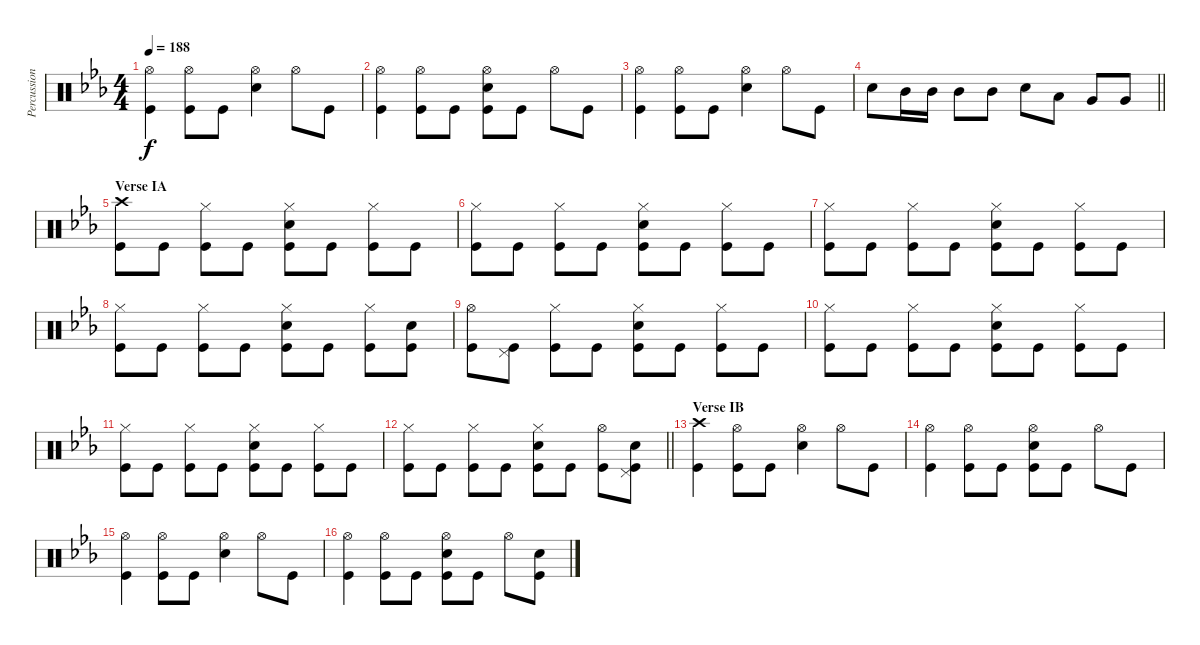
\track ("Percussion" "Percussion") {instrument percussion}
\staff {score}
\articulation defaults
\ts (4 4)
\tempo 188
\clef neutral
\ks eb
("Hi-Hat (open)" "Kick (hit)").4{dy f} ("Hi-Hat (open)" "Kick (hit)").8 "Kick (hit)".8 ("Hi-Hat (open)" "Electric Snare (hit)").4 "Hi-Hat (open)".8 "Kick (hit)".8 |
("Hi-Hat (open)" "Kick (hit)").4 ("Hi-Hat (open)" "Kick (hit)").8 "Kick (hit)".8 ("Hi-Hat (open)" "Electric Snare (hit)" "Kick (hit)").8 "Kick (hit)".8 "Hi-Hat (open)".8 "Kick (hit)".8 |
("Hi-Hat (open)" "Kick (hit)").4 ("Hi-Hat (open)" "Kick (hit)").8 "Kick (hit)".8 ("Hi-Hat (open)" "Electric Snare (hit)").4 "Hi-Hat (open)".8 "Kick (hit)".8 |
\barLineRight lightlight "Electric Snare (hit)".8 "Mid Tom (hit)".16 "Mid Tom (hit)".16 "Mid Tom (hit)".8 "Mid Tom (hit)".8 "Electric Snare (hit)".8 "Low Tom (hit)".8 "Very Low Tom (hit)".8 "Very Low Tom (hit)".8
|
\section ("" "Verse IA")
("Crash high (hit)" "Kick (hit)").8 "Kick (hit)".8 ("Hi-Hat (closed)" "Kick (hit)").8 "Kick (hit)".8 ("Hi-Hat (closed)" "Electric Snare (hit)" "Kick (hit)").8 "Kick (hit)".8 ("Hi-Hat (closed)" "Kick (hit)").8 "Kick (hit)".8 |
("Hi-Hat (closed)" "Kick (hit)").8 "Kick (hit)".8 ("Hi-Hat (closed)" "Kick (hit)").8 "Kick (hit)".8 ("Hi-Hat (closed)" "Electric Snare (hit)" "Kick (hit)").8 "Kick (hit)".8 ("Hi-Hat (closed)" "Kick (hit)").8 "Kick (hit)".8 |
("Hi-Hat (closed)" "Kick (hit)").8 "Kick (hit)".8 ("Hi-Hat (closed)" "Kick (hit)").8 "Kick (hit)".8 ("Hi-Hat (closed)" "Electric Snare (hit)" "Kick (hit)").8 "Kick (hit)".8 ("Hi-Hat (closed)" "Kick (hit)").8 "Kick (hit)".8 |
("Hi-Hat (closed)" "Kick (hit)").8 "Kick (hit)".8 ("Hi-Hat (closed)" "Kick (hit)").8 "Kick (hit)".8 ("Hi-Hat (closed)" "Electric Snare (hit)" "Kick (hit)").8 "Kick (hit)".8 ("Hi-Hat (closed)" "Kick (hit)").8 ("Electric Snare (hit)" "Kick (hit)").8 |
("Hi-Hat (open)" "Kick (hit)").8 ("Pedal Hi-Hat (hit)" "Kick (hit)").8 ("Hi-Hat (closed)" "Kick (hit)").8 "Kick (hit)".8 ("Hi-Hat (closed)" "Electric Snare (hit)" "Kick (hit)").8 "Kick (hit)".8 ("Hi-Hat (closed)" "Kick (hit)").8 "Kick (hit)".8 |
("Hi-Hat (closed)" "Kick (hit)").8 "Kick (hit)".8 ("Hi-Hat (closed)" "Kick (hit)").8 "Kick (hit)".8 ("Hi-Hat (closed)" "Electric Snare (hit)" "Kick (hit)").8 "Kick (hit)".8 ("Hi-Hat (closed)" "Kick (hit)").8 "Kick (hit)".8 |
("Hi-Hat (closed)" "Kick (hit)").8 "Kick (hit)".8 ("Hi-Hat (closed)" "Kick (hit)").8 "Kick (hit)".8 ("Hi-Hat (closed)" "Electric Snare (hit)" "Kick (hit)").8 "Kick (hit)".8 ("Hi-Hat (closed)" "Kick (hit)").8 "Kick (hit)".8 |
\barLineRight lightlight
("Hi-Hat (closed)" "Kick (hit)").8 "Kick (hit)".8 ("Hi-Hat (closed)" "Kick (hit)").8 "Kick (hit)".8 ("Hi-Hat (closed)" "Electric Snare (hit)" "Kick (hit)").8 "Kick (hit)".8 ("Hi-Hat (open)" "Kick (hit)").8 ("Pedal Hi-Hat (hit)" "Electric Snare (hit)" "Kick (hit)").8 |
\section ("" "Verse IB")
("Crash high (hit)" "Kick (hit)").4 ("Hi-Hat (open)" "Kick (hit)").8 "Kick (hit)".8 ("Hi-Hat (open)" "Electric Snare (hit)").4 "Hi-Hat (open)".8 "Kick (hit)".8 |
("Hi-Hat (open)" "Kick (hit)").4 ("Hi-Hat (open)" "Kick (hit)").8 "Kick (hit)".8 ("Hi-Hat (open)" "Electric Snare (hit)" "Kick (hit)").8 "Kick (hit)".8 "Hi-Hat (open)".8 "Kick (hit)".8 |
("Hi-Hat (open)" "Kick (hit)").4 ("Hi-Hat (open)" "Kick (hit)").8 "Kick (hit)".8 ("Hi-Hat (open)" "Electric Snare (hit)").4 "Hi-Hat (open)".8 "Kick (hit)".8 |
("Hi-Hat (open)" "Kick (hit)").4 ("Hi-Hat (open)" "Kick (hit)").8 "Kick (hit)".8 ("Hi-Hat (open)" "Electric Snare (hit)" "Kick (hit)").8 "Kick (hit)".8 "Hi-Hat (open)".8 ("Electric Snare (hit)" "Kick (hit)").8
